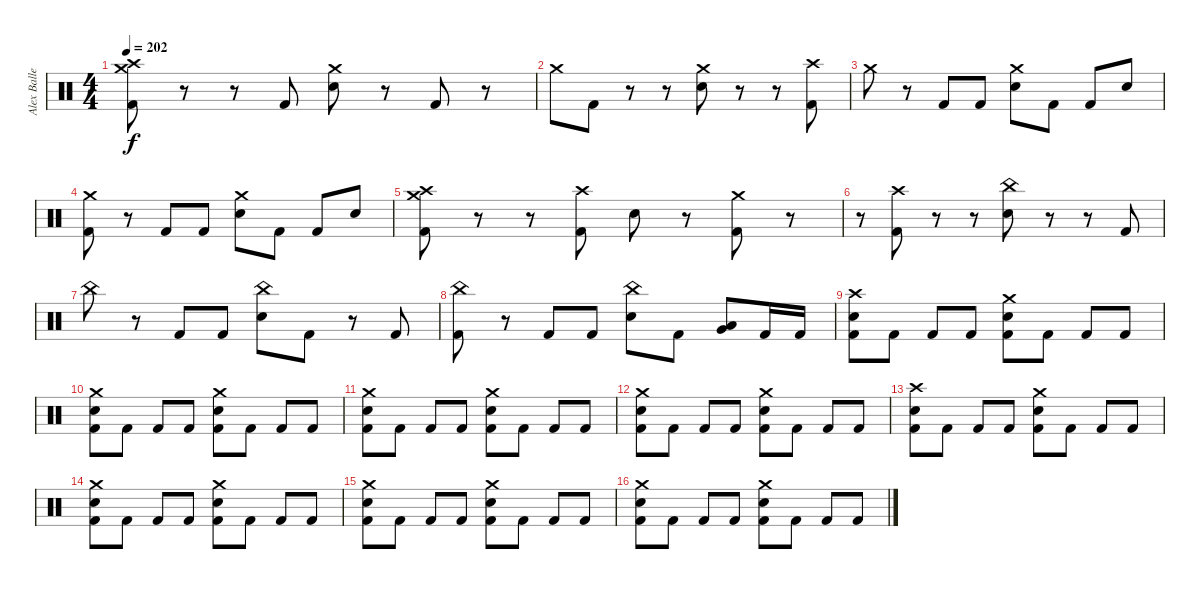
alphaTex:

\track ("Alex Ballew" "Alex Balle") {instrument percussion}
\staff {score}
\articulation defaults
\ts (4 4)
\tempo 202
\clef neutral
\ks c
("Crash medium (hit)" "Crash high (hit)" "Kick (hit) 2").8{dy f} r.8 r.8 "Kick (hit) 2".8 ("Crash medium (hit)" "Electric Snare (hit)").8 r.8 "Kick (hit) 2".8 r.8 |
"Crash medium (hit)".8 "Kick (hit) 2".8 r.8 r.8 ("Crash medium (hit)" "Electric Snare (hit)").8 r.8 r.8 ("Crash high (hit)" "Kick (hit) 2").8 |
"Crash medium (hit)".8 r.8 "Kick (hit) 2".8 "Kick (hit) 2".8 ("Crash medium (hit)" "Electric Snare (hit)").8 "Kick (hit) 2".8 "Kick (hit) 2".8 "Electric Snare (hit)".8 |
("Crash medium (hit)" "Kick (hit) 2").8 r.8 "Kick (hit) 2".8 "Kick (hit) 2".8 ("Crash medium (hit)" "Electric Snare (hit)").8 "Kick (hit) 2".8 "Kick (hit) 2".8 "Electric Snare (hit)".8 |
("Crash medium (hit)" "Crash high (hit)" "Kick (hit) 2").8 r.8 r.8 ("Crash high (hit)" "Kick (hit) 2").8 "Electric Snare (hit)".8 r.8 ("Crash medium (hit)" "Kick (hit) 2").8 r.8 |
r.8 ("Crash high (hit)" "Kick (hit) 2").8 r.8 r.8 ("China (hit)" "Electric Snare (hit)").8 r.8 r.8 "Kick (hit) 2".8 |
"China (hit)".8 r.8 "Kick (hit) 2".8 "Kick (hit) 2".8 ("China (hit)" "Electric Snare (hit)").8 "Kick (hit) 2".8 r.8 "Kick (hit) 2".8 |
("China (hit)" "Kick (hit) 2").8 r.8 "Kick (hit) 2".8 "Kick (hit) 2".8 ("China (hit)" "Electric Snare (hit)").8 "Kick (hit) 2".8 ("Low Tom (hit)" "Very Low Tom (hit)").8 "Kick (hit) 2".16 "Kick (hit) 2".16 |
("Crash high (hit)" "Electric Snare (hit)" "Kick (hit) 2").8 "Kick (hit) 2".8 "Kick (hit) 2".8 "Kick (hit) 2".8 ("Crash medium (hit)" "Electric Snare (hit)" "Kick (hit) 2").8 "Kick (hit) 2".8 "Kick (hit) 2".8 "Kick (hit) 2".8 |
("Crash medium (hit)" "Electric Snare (hit)" "Kick (hit) 2").8 "Kick (hit) 2".8 "Kick (hit) 2".8 "Kick (hit) 2".8 ("Crash medium (hit)" "Electric Snare (hit)" "Kick (hit) 2").8 "Kick (hit) 2".8 "Kick (hit) 2".8 "Kick (hit) 2".8 |
("Crash medium (hit)" "Electric Snare (hit)" "Kick (hit) 2").8 "Kick (hit) 2".8 "Kick (hit) 2".8 "Kick (hit) 2".8 ("Crash medium (hit)" "Electric Snare (hit)" "Kick (hit) 2").8 "Kick (hit) 2".8 "Kick (hit) 2".8 "Kick (hit) 2".8 |
("Crash medium (hit)" "Electric Snare (hit)" "Kick (hit) 2").8 "Kick (hit) 2".8 "Kick (hit) 2".8 "Kick (hit) 2".8 ("Crash medium (hit)" "Electric Snare (hit)" "Kick (hit) 2").8 "Kick (hit) 2".8 "Kick (hit) 2".8 "Kick (hit) 2".8 |
("Crash high (hit)" "Electric Snare (hit)" "Kick (hit) 2").8 "Kick (hit) 2".8 "Kick (hit) 2".8 "Kick (hit) 2".8 ("Crash medium (hit)" "Electric Snare (hit)" "Kick (hit) 2").8 "Kick (hit) 2".8 "Kick (hit) 2".8 "Kick (hit) 2".8 |
("Crash medium (hit)" "Electric Snare (hit)" "Kick (hit) 2").8 "Kick (hit) 2".8 "Kick (hit) 2".8 "Kick (hit) 2".8 ("Crash medium (hit)" "Electric Snare (hit)" "Kick (hit) 2").8 "Kick (hit) 2".8 "Kick (hit) 2".8 "Kick (hit) 2".8 |
("Crash medium (hit)" "Electric Snare (hit)" "Kick (hit) 2").8 "Kick (hit) 2".8 "Kick (hit) 2".8 "Kick (hit) 2".8 ("Crash medium (hit)" "Electric Snare (hit)" "Kick (hit) 2").8 "Kick (hit) 2".8 "Kick (hit) 2".8 "Kick (hit) 2".8 |
("Crash medium (hit)" "Electric Snare (hit)" "Kick (hit) 2").8 "Kick (hit) 2".8 "Kick (hit) 2".8 "Kick (hit) 2".8 ("Crash medium (hit)" "Electric Snare (hit)" "Kick (hit) 2").8 "Kick (hit) 2".8 "Kick (hit) 2".8 "Kick (hit) 2".8
